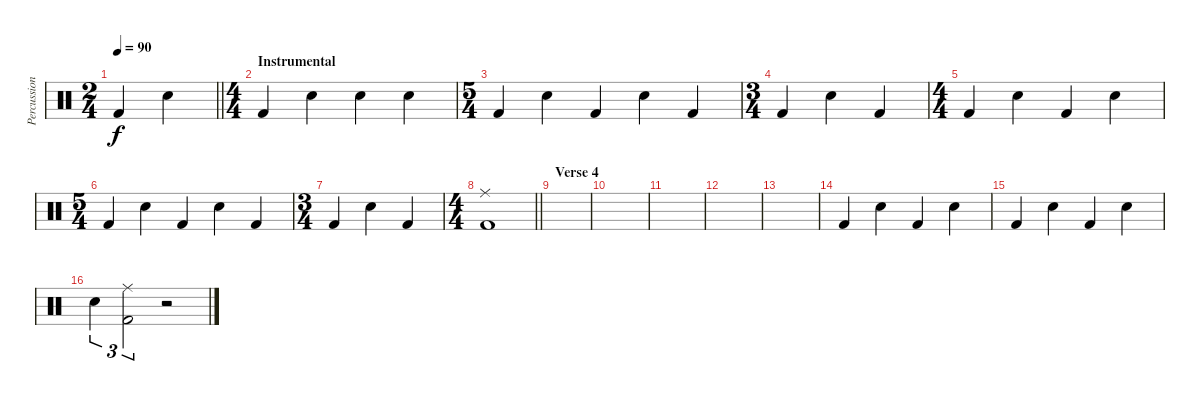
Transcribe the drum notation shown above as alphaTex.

\track ("Percussion" "Percussion") {instrument percussion}
\staff {score}
\articulation defaults
\ts (2 4)
\tempo 90
\clef neutral
\barLineRight lightlight
\ks c "Kick (hit) 2".4{dy f} "Snare (hit) 2".4
|
\ts (4 4)
\section ("" "Instrumental")
"Kick (hit) 2".4 "Snare (hit) 2".4 "Snare (hit) 2".4 "Snare (hit) 2".4 |
\ts (5 4)
"Kick (hit) 2".4 "Snare (hit) 2".4 "Kick (hit) 2".4 "Snare (hit) 2".4 "Kick (hit) 2".4 |
\ts (3 4)
"Kick (hit) 2".4 "Snare (hit) 2".4 "Kick (hit) 2".4 |
\ts (4 4)
"Kick (hit) 2".4 "Snare (hit) 2".4 "Kick (hit) 2".4 "Snare (hit) 2".4 |
\ts (5 4)
"Kick (hit) 2".4 "Snare (hit) 2".4 "Kick (hit) 2".4 "Snare (hit) 2".4 "Kick (hit) 2".4 |
\ts (3 4)
"Kick (hit) 2".4 "Snare (hit) 2".4 "Kick (hit) 2".4 |
\ts (4 4)
\barLineRight lightlight
("Ride (middle)" "Kick (hit) 2").1 |
\section ("" "Verse 4")
|
|
|
|
|
"Kick (hit) 2".4 "Snare (hit) 2".4 "Kick (hit) 2".4 "Snare (hit) 2".4 |
"Kick (hit) 2".4 "Snare (hit) 2".4 "Kick (hit) 2".4 "Snare (hit) 2".4 |
"Snare (hit) 2".4{tu (3 2)} ("Ride (middle)" "Kick (hit) 2").2{tu (3 2)} r.2
